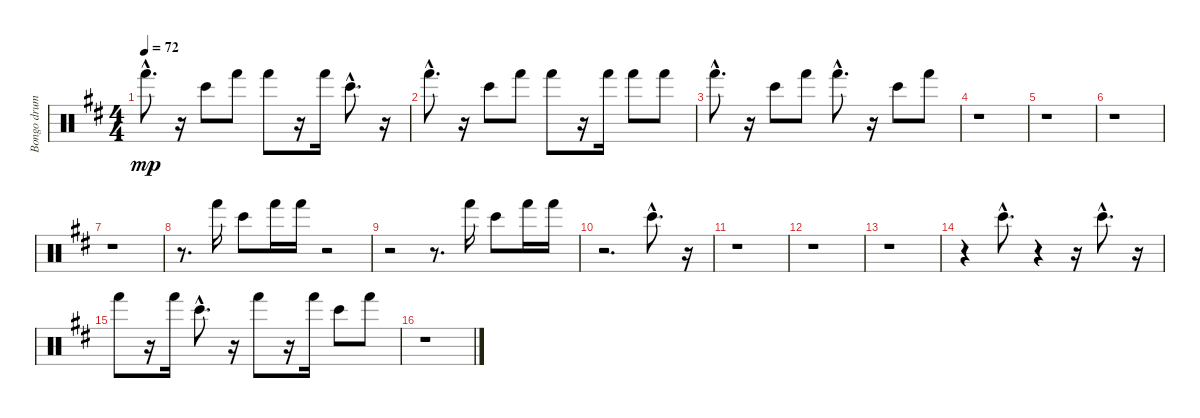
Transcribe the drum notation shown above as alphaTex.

\track ("Bongo drums" "Bongo drum") {instrument percussion}
\staff {score}
\articulation defaults
\ts (4 4)
\tempo 72
\clef neutral
\ks d "Hand (hit)"{hac}.8{d dy mp}
r.16 "Bongo High (hit)".8 "Hand (hit)".8 "Hand (hit)".8 r.16 "Hand (hit)".16 "Bongo High (hit)"{hac}.8{d} r.16 |
"Hand (hit)"{hac}.8{d} r.16 "Bongo High (hit)".8 "Hand (hit)".8 "Hand (hit)".8 r.16 "Hand (hit)".16 "Hand (hit)".8 "Hand (hit)".8 |
"Hand (hit)"{hac}.8{d} r.16 "Bongo High (hit)".8 "Hand (hit)".8 "Hand (hit)"{hac}.8{d} r.16 "Bongo High (hit)".8 "Hand (hit)".8 |
r.1 |
r.1 |
r.1 |
r.1 |
r.8{d} "Hand (hit)".16 "Bongo High (hit)".8 "Hand (hit)".16 "Hand (hit)".16 r.2 |
r.2 r.8{d} "Hand (hit)".16 "Bongo High (hit)".8 "Hand (hit)".16 "Hand (hit)".16 |
r.2{d} "Bongo High (hit)"{hac}.8{d} r.16 |
r.1 |
r.1 |
r.1 |
r.4 "Bongo High (hit)"{hac}.8{d} r.4 r.16 "Bongo High (hit)"{hac}.8{d} r.16 |
"Hand (hit)".8 r.16 "Hand (hit)".16 "Bongo High (hit)"{hac}.8{d} r.16 "Hand (hit)".8 r.16 "Hand (hit)".16 "Bongo High (hit)".8 "Hand (hit)".8 |
r.1
